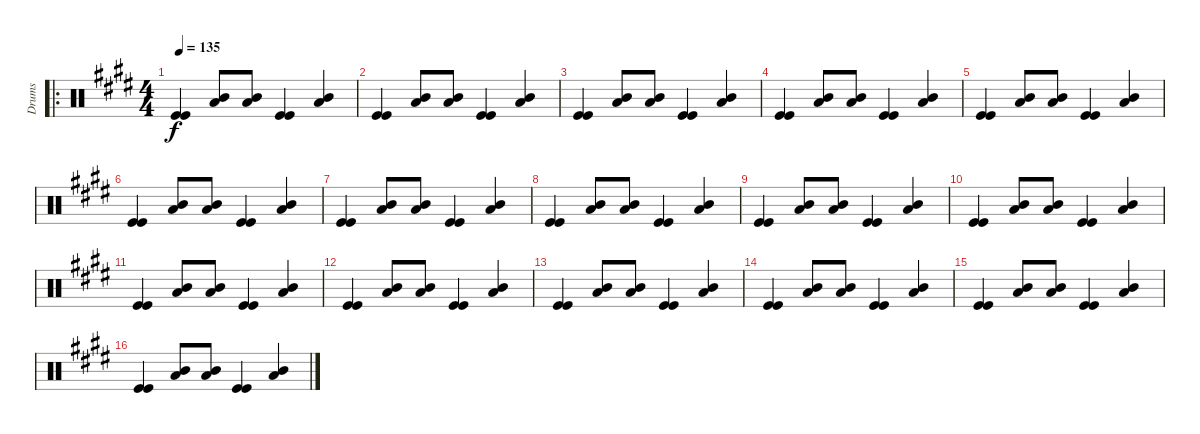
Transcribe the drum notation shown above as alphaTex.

\track ("Drums" "Drums") {instrument percussion}
\staff {score}
\articulation defaults
\ro
\ts (4 4)
\tempo 135
\clef neutral
\ks e
("Kick (hit)" "Kick (hit)").4{dy f} ("Low Tom (hit)" "Mid Tom (hit)").8 ("Low Tom (hit)" "Mid Tom (hit)").8 ("Kick (hit)" "Kick (hit)").4 ("Low Tom (hit)" "Mid Tom (hit)").4 |
("Kick (hit)" "Kick (hit)").4 ("Low Tom (hit)" "Mid Tom (hit)").8 ("Low Tom (hit)" "Mid Tom (hit)").8 ("Kick (hit)" "Kick (hit)").4 ("Low Tom (hit)" "Mid Tom (hit)").4 |
("Kick (hit)" "Kick (hit)").4 ("Low Tom (hit)" "Mid Tom (hit)").8 ("Low Tom (hit)" "Mid Tom (hit)").8 ("Kick (hit)" "Kick (hit)").4 ("Low Tom (hit)" "Mid Tom (hit)").4 |
("Kick (hit)" "Kick (hit)").4 ("Low Tom (hit)" "Mid Tom (hit)").8 ("Low Tom (hit)" "Mid Tom (hit)").8 ("Kick (hit)" "Kick (hit)").4 ("Low Tom (hit)" "Mid Tom (hit)").4 |
("Kick (hit)" "Kick (hit)").4 ("Low Tom (hit)" "Mid Tom (hit)").8 ("Low Tom (hit)" "Mid Tom (hit)").8 ("Kick (hit)" "Kick (hit)").4 ("Low Tom (hit)" "Mid Tom (hit)").4 |
("Kick (hit)" "Kick (hit)").4 ("Low Tom (hit)" "Mid Tom (hit)").8 ("Low Tom (hit)" "Mid Tom (hit)").8 ("Kick (hit)" "Kick (hit)").4 ("Low Tom (hit)" "Mid Tom (hit)").4 |
("Kick (hit)" "Kick (hit)").4 ("Low Tom (hit)" "Mid Tom (hit)").8 ("Low Tom (hit)" "Mid Tom (hit)").8 ("Kick (hit)" "Kick (hit)").4 ("Low Tom (hit)" "Mid Tom (hit)").4 |
("Kick (hit)" "Kick (hit)").4 ("Low Tom (hit)" "Mid Tom (hit)").8 ("Low Tom (hit)" "Mid Tom (hit)").8 ("Kick (hit)" "Kick (hit)").4 ("Low Tom (hit)" "Mid Tom (hit)").4 |
("Kick (hit)" "Kick (hit)").4 ("Low Tom (hit)" "Mid Tom (hit)").8 ("Low Tom (hit)" "Mid Tom (hit)").8 ("Kick (hit)" "Kick (hit)").4 ("Low Tom (hit)" "Mid Tom (hit)").4 |
("Kick (hit)" "Kick (hit)").4 ("Low Tom (hit)" "Mid Tom (hit)").8 ("Low Tom (hit)" "Mid Tom (hit)").8 ("Kick (hit)" "Kick (hit)").4 ("Low Tom (hit)" "Mid Tom (hit)").4 |
("Kick (hit)" "Kick (hit)").4 ("Low Tom (hit)" "Mid Tom (hit)").8 ("Low Tom (hit)" "Mid Tom (hit)").8 ("Kick (hit)" "Kick (hit)").4 ("Low Tom (hit)" "Mid Tom (hit)").4 |
("Kick (hit)" "Kick (hit)").4 ("Low Tom (hit)" "Mid Tom (hit)").8 ("Low Tom (hit)" "Mid Tom (hit)").8 ("Kick (hit)" "Kick (hit)").4 ("Low Tom (hit)" "Mid Tom (hit)").4 |
("Kick (hit)" "Kick (hit)").4 ("Low Tom (hit)" "Mid Tom (hit)").8 ("Low Tom (hit)" "Mid Tom (hit)").8 ("Kick (hit)" "Kick (hit)").4 ("Low Tom (hit)" "Mid Tom (hit)").4 |
("Kick (hit)" "Kick (hit)").4 ("Low Tom (hit)" "Mid Tom (hit)").8 ("Low Tom (hit)" "Mid Tom (hit)").8 ("Kick (hit)" "Kick (hit)").4 ("Low Tom (hit)" "Mid Tom (hit)").4 |
("Kick (hit)" "Kick (hit)").4 ("Low Tom (hit)" "Mid Tom (hit)").8 ("Low Tom (hit)" "Mid Tom (hit)").8 ("Kick (hit)" "Kick (hit)").4 ("Low Tom (hit)" "Mid Tom (hit)").4 |
("Kick (hit)" "Kick (hit)").4 ("Low Tom (hit)" "Mid Tom (hit)").8 ("Low Tom (hit)" "Mid Tom (hit)").8 ("Kick (hit)" "Kick (hit)").4 ("Low Tom (hit)" "Mid Tom (hit)").4
